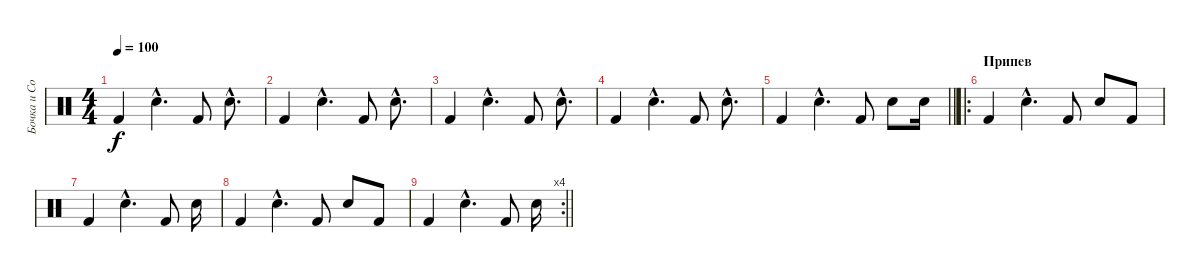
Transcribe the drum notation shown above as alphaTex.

\track ("Бочка и Сольник" "Бочка и Со") {instrument percussion}
\staff {score}
\articulation defaults
\ts (4 4)
\tempo 100
\clef neutral
\ks c "Kick (hit) 2".4{dy f} "Snare (hit) 2"{hac}.4{d} "Kick (hit) 2".8 "Snare (hit) 2"{hac}.8{d}
|
"Kick (hit) 2".4 "Snare (hit) 2"{hac}.4{d} "Kick (hit) 2".8 "Snare (hit) 2"{hac}.8{d} |
"Kick (hit) 2".4 "Snare (hit) 2"{hac}.4{d} "Kick (hit) 2".8 "Snare (hit) 2"{hac}.8{d} |
"Kick (hit) 2".4 "Snare (hit) 2"{hac}.4{d} "Kick (hit) 2".8 "Snare (hit) 2"{hac}.8{d} |
\barLineRight lightlight "Kick (hit) 2".4 "Snare (hit) 2"{hac}.4{d} "Kick (hit) 2".8 "Snare (hit) 2".8 "Snare (hit) 2".16
|
\ro
\section ("" "Припев")
"Kick (hit) 2".4 "Electric Snare (hit)"{hac}.4{d} "Kick (hit) 2".8 "Electric Snare (hit)".8 "Kick (hit) 2".8 |
"Kick (hit) 2".4 "Electric Snare (hit)"{hac}.4{d} "Kick (hit) 2".8 "Electric Snare (hit)".16 |
"Kick (hit) 2".4 "Electric Snare (hit)"{hac}.4{d} "Kick (hit) 2".8 "Electric Snare (hit)".8 "Kick (hit) 2".8 |
\rc 4
\barLineRight lightlight "Kick (hit) 2".4 "Electric Snare (hit)"{hac}.4{d} "Kick (hit) 2".8 "Electric Snare (hit)".16
